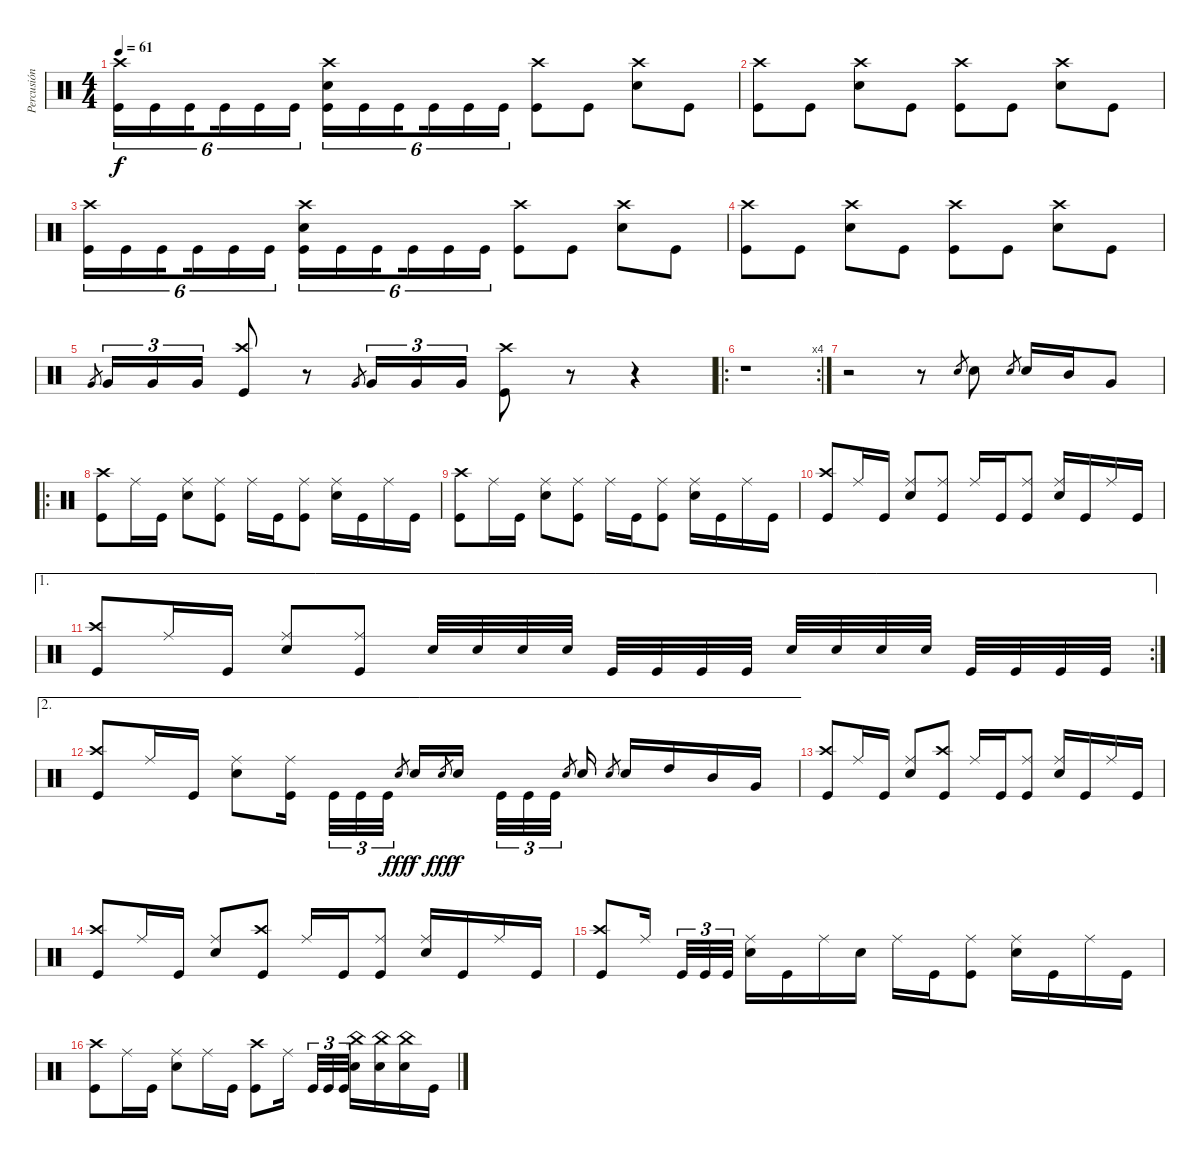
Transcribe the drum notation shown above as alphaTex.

\track ("Percusión" "Percusión") {instrument percussion}
\staff {score}
\articulation defaults
\ts (4 4)
\tempo 61
\clef neutral
\ks c
("Crash high (hit)" "Kick (hit)").16{tu (6 4) dy f} "Kick (hit)".16{tu (6 4)} "Kick (hit)".16{tu (6 4) beam splitsecondary} "Kick (hit)".16{tu (6 4)} "Kick (hit)".16{tu (6 4)} "Kick (hit)".16{tu (6 4)} ("Crash high (hit)" "Snare (hit) 2" "Kick (hit)").16{tu (6 4)} "Kick (hit)".16{tu (6 4)} "Kick (hit)".16{tu (6 4) beam splitsecondary} "Kick (hit)".16{tu (6 4)} "Kick (hit)".16{tu (6 4)} "Kick (hit)".16{tu (6 4)} ("Crash high (hit)" "Kick (hit)").8 "Kick (hit)".8 ("Crash high (hit)" "Snare (hit) 2").8 "Kick (hit)".8 |
("Crash high (hit)" "Kick (hit)").8 "Kick (hit)".8 ("Crash high (hit)" "Snare (hit) 2").8 "Kick (hit)".8 ("Crash high (hit)" "Kick (hit)").8 "Kick (hit)".8 ("Crash high (hit)" "Snare (hit) 2").8 "Kick (hit)".8 |
("Crash high (hit)" "Kick (hit)").16{tu (6 4)} "Kick (hit)".16{tu (6 4)} "Kick (hit)".16{tu (6 4) beam splitsecondary} "Kick (hit)".16{tu (6 4)} "Kick (hit)".16{tu (6 4)} "Kick (hit)".16{tu (6 4)} ("Crash high (hit)" "Snare (hit) 2" "Kick (hit)").16{tu (6 4)} "Kick (hit)".16{tu (6 4)} "Kick (hit)".16{tu (6 4) beam splitsecondary} "Kick (hit)".16{tu (6 4)} "Kick (hit)".16{tu (6 4)} "Kick (hit)".16{tu (6 4)} ("Crash high (hit)" "Kick (hit)").8 "Kick (hit)".8 ("Crash high (hit)" "Snare (hit) 2").8 "Kick (hit)".8 |
("Crash high (hit)" "Kick (hit)").8 "Kick (hit)".8 ("Crash high (hit)" "Snare (hit) 2").8 "Kick (hit)".8 ("Crash high (hit)" "Kick (hit)").8 "Kick (hit)".8 ("Crash high (hit)" "Snare (hit) 2").8 "Kick (hit)".8 |
"Very Low Tom (hit)".8{gr} "Very Low Tom (hit)".16{tu (3 2) beam Up beam merge} "Very Low Tom (hit)".16{tu (3 2) beam Up beam merge} "Very Low Tom (hit)".16{tu (3 2) beam Up beam split} ("Kick (hit)" "Crash high (hit)").8{beam Up} r.8 "Very Low Tom (hit)".8{gr} "Very Low Tom (hit)".16{tu (3 2)} "Very Low Tom (hit)".16{tu (3 2)} "Very Low Tom (hit)".16{tu (3 2)} ("Kick (hit)" "Crash high (hit)").8 r.8 r.4 |
\ro
\rc 4
r.1 |
r.2 r.8 "Snare (hit) 2".8{gr} "Snare (hit) 2".8 "Snare (hit) 2"{x}.8{gr} "Snare (hit) 2".16 "Mid Tom (hit)".16 "Very Low Tom (hit)".8 |
\ro
("Crash high (hit)" "Kick (hit)").8 "Ride (middle)".16 "Kick (hit)".16 ("Ride (middle)" "Snare (hit) 2").8 ("Ride (middle)" "Kick (hit)").8 "Ride (middle)".16 "Kick (hit)".16 ("Ride (middle)" "Kick (hit)").8 ("Ride (middle)" "Snare (hit) 2").16 "Kick (hit)".16 "Ride (middle)".16 "Kick (hit)".16 |
("Crash high (hit)" "Kick (hit)").8 "Ride (middle)".16 "Kick (hit)".16 ("Ride (middle)" "Snare (hit) 2").8 ("Ride (middle)" "Kick (hit)").8 "Ride (middle)".16 "Kick (hit)".16 ("Ride (middle)" "Kick (hit)").8 ("Ride (middle)" "Snare (hit) 2").16 "Kick (hit)".16 "Ride (middle)".16 "Kick (hit)".16 |
("Crash high (hit)" "Kick (hit)").8{beam Up} "Ride (middle)".16{beam Up} "Kick (hit)".16{beam Up} ("Ride (middle)" "Snare (hit) 2").8{beam Up} ("Ride (middle)" "Kick (hit)").8{beam Up} "Ride (middle)".16{beam Up} "Kick (hit)".16{beam Up} ("Ride (middle)" "Kick (hit)").8{beam Up} ("Ride (middle)" "Snare (hit) 2").16{beam Up} "Kick (hit)".16{beam Up} "Ride (middle)".16{beam Up} "Kick (hit)".16{beam Up} |
\ae 1
\rc 2
("Crash high (hit)" "Kick (hit)").8{beam Up} "Ride (middle)".16{beam Up} "Kick (hit)".16{beam Up} ("Ride (middle)" "Snare (hit) 2").8{beam Up} ("Ride (middle)" "Kick (hit)").8{beam Up} "Snare (hit) 2".32{beam Up} "Snare (hit) 2".32{beam Up} "Snare (hit) 2".32{beam Up} "Snare (hit) 2".32{beam Up beam split} "Kick (hit)".32{beam merge} "Kick (hit)".32{beam merge} "Kick (hit)".32{beam merge} "Kick (hit)".32 "Snare (hit) 2".32{beam Up} "Snare (hit) 2".32{beam Up} "Snare (hit) 2".32{beam Up} "Snare (hit) 2".32{beam Up beam split} "Kick (hit)".32 "Kick (hit)".32 "Kick (hit)".32 "Kick (hit)".32 |
\ae 2
("Crash high (hit)" "Kick (hit)").8{beam Up} "Ride (middle)".16{beam Up} "Kick (hit)".16{beam Up} ("Ride (middle)" "Snare (hit) 2").8{beam Down} ("Ride (middle)" "Kick (hit)").16{beam Down beam splitsecondary} "Kick (hit)".32{tu (3 2) beam Down} "Kick (hit)".32{tu (3 2) beam Down beam merge} "Kick (hit)".32{tu (3 2) beam Down} "Snare (hit) 2".8{gr dy fff} "Snare (hit) 2".16{dy f beam Up} "Snare (hit) 2".8{gr dy fff beam merge} "Snare (hit) 2".16{dy f beam Up beam split} "Kick (hit)".32{tu (3 2) beam Down beam merge} "Kick (hit)".32{tu (3 2) beam Down beam merge} "Kick (hit)".32{tu (3 2) beam Down} "Snare (hit) 2".8{gr beam split} "Snare (hit) 2".16{beam Up} "Snare (hit) 2".8{gr} "Snare (hit) 2".16{beam Up} "High Tom (hit)".16 "Mid Tom (hit)".16 "Very Low Tom (hit)".16 |
("Crash high (hit)" "Kick (hit)").8{beam Up} "Ride (middle)".16{beam Up} "Kick (hit)".16{beam Up} ("Ride (middle)" "Snare (hit) 2").8{beam Up} ("Crash high (hit)" "Kick (hit)").8{beam Up} "Ride (middle)".16{beam Up} "Kick (hit)".16{beam Up} ("Ride (middle)" "Kick (hit)").8{beam Up} ("Ride (middle)" "Snare (hit) 2").16{beam Up} "Kick (hit)".16{beam Up} "Ride (middle)".16{beam Up} "Kick (hit)".16{beam Up} |
("Crash high (hit)" "Kick (hit)").8{beam Up} "Ride (middle)".16{beam Up} "Kick (hit)".16{beam Up} ("Ride (middle)" "Snare (hit) 2").8{beam Up} ("Crash high (hit)" "Kick (hit)").8{beam Up} "Ride (middle)".16{beam Up} "Kick (hit)".16{beam Up} ("Ride (middle)" "Kick (hit)").8{beam Up} ("Ride (middle)" "Snare (hit) 2").16{beam Up} "Kick (hit)".16{beam Up} "Ride (middle)".16{beam Up} "Kick (hit)".16{beam Up} |
("Crash high (hit)" "Kick (hit)").8{beam Up} "Ride (middle)".16{beam Up beam splitsecondary} "Kick (hit)".32{tu (3 2) beam Up} "Kick (hit)".32{tu (3 2)} "Kick (hit)".32{tu (3 2)} ("Ride (middle)" "Snare (hit) 2").16 "Kick (hit)".16 "Ride (middle)".16 "Snare (hit) 2".16 "Ride (middle)".16 "Kick (hit)".16 ("Ride (middle)" "Kick (hit)").8 ("Ride (middle)" "Snare (hit) 2").16 "Kick (hit)".16 "Ride (middle)".16 "Kick (hit)".16 |
("Crash high (hit)" "Kick (hit)").8 "Ride (middle)".16 "Kick (hit)".16 ("Ride (middle)" "Snare (hit) 2").8 "Ride (middle)".16 "Kick (hit)".16 ("Crash high (hit)" "Kick (hit)").8 "Ride (middle)".16{beam splitsecondary} "Kick (hit)".32{tu (3 2)} "Kick (hit)".32{tu (3 2)} "Kick (hit)".32{tu (3 2)} ("China (hit)" "Snare (hit) 2").16 ("China (hit)" "Snare (hit) 2").16 ("China (hit)" "Snare (hit) 2").16 "Kick (hit)".16
